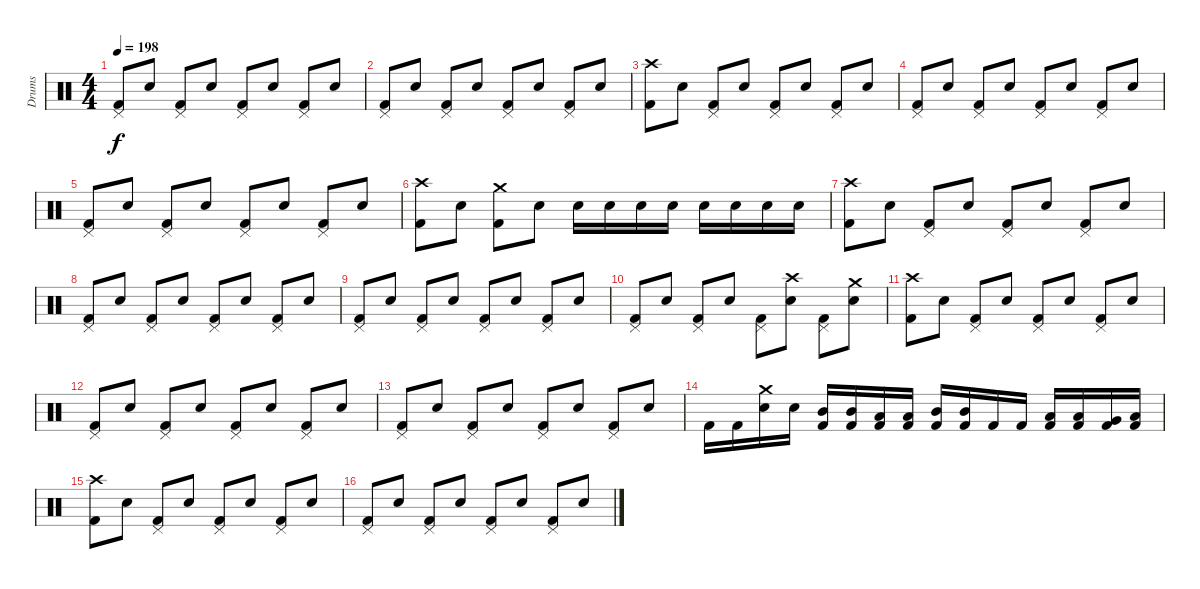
\track ("Drums" "Drums") {instrument percussion}
\staff {score}
\articulation defaults
\ts (4 4)
\tempo 198
\clef neutral
\ks c
("Pedal Hi-Hat (hit)" "Kick (hit) 2").8{dy f} "Electric Snare (hit)".8 ("Pedal Hi-Hat (hit)" "Kick (hit) 2").8 "Electric Snare (hit)".8 ("Pedal Hi-Hat (hit)" "Kick (hit) 2").8 "Electric Snare (hit)".8 ("Pedal Hi-Hat (hit)" "Kick (hit) 2").8 "Electric Snare (hit)".8 |
("Pedal Hi-Hat (hit)" "Kick (hit) 2").8 "Electric Snare (hit)".8 ("Pedal Hi-Hat (hit)" "Kick (hit) 2").8 "Electric Snare (hit)".8 ("Pedal Hi-Hat (hit)" "Kick (hit) 2").8 "Electric Snare (hit)".8 ("Pedal Hi-Hat (hit)" "Kick (hit) 2").8 "Electric Snare (hit)".8 |
("Crash high (hit)" "Kick (hit) 2").8 "Electric Snare (hit)".8 ("Pedal Hi-Hat (hit)" "Kick (hit) 2").8 "Electric Snare (hit)".8 ("Pedal Hi-Hat (hit)" "Kick (hit) 2").8 "Electric Snare (hit)".8 ("Pedal Hi-Hat (hit)" "Kick (hit) 2").8 "Electric Snare (hit)".8 |
("Pedal Hi-Hat (hit)" "Kick (hit) 2").8 "Electric Snare (hit)".8 ("Pedal Hi-Hat (hit)" "Kick (hit) 2").8 "Electric Snare (hit)".8 ("Pedal Hi-Hat (hit)" "Kick (hit) 2").8 "Electric Snare (hit)".8 ("Pedal Hi-Hat (hit)" "Kick (hit) 2").8 "Electric Snare (hit)".8 |
("Pedal Hi-Hat (hit)" "Kick (hit) 2").8 "Electric Snare (hit)".8 ("Pedal Hi-Hat (hit)" "Kick (hit) 2").8 "Electric Snare (hit)".8 ("Pedal Hi-Hat (hit)" "Kick (hit) 2").8 "Electric Snare (hit)".8 ("Pedal Hi-Hat (hit)" "Kick (hit) 2").8 "Electric Snare (hit)".8 |
("Crash high (hit)" "Kick (hit) 2").8 "Electric Snare (hit)".8 ("Crash medium (hit)" "Kick (hit) 2").8 "Electric Snare (hit)".8 "Electric Snare (hit)".16 "Electric Snare (hit)".16 "Electric Snare (hit)".16 "Electric Snare (hit)".16 "Electric Snare (hit)".16 "Electric Snare (hit)".16 "Electric Snare (hit)".16 "Electric Snare (hit)".16 |
("Crash high (hit)" "Kick (hit) 2").8 "Electric Snare (hit)".8 ("Pedal Hi-Hat (hit)" "Kick (hit) 2").8 "Electric Snare (hit)".8 ("Pedal Hi-Hat (hit)" "Kick (hit) 2").8 "Electric Snare (hit)".8 ("Pedal Hi-Hat (hit)" "Kick (hit) 2").8 "Electric Snare (hit)".8 |
("Pedal Hi-Hat (hit)" "Kick (hit) 2").8 "Electric Snare (hit)".8 ("Pedal Hi-Hat (hit)" "Kick (hit) 2").8 "Electric Snare (hit)".8 ("Pedal Hi-Hat (hit)" "Kick (hit) 2").8 "Electric Snare (hit)".8 ("Pedal Hi-Hat (hit)" "Kick (hit) 2").8 "Electric Snare (hit)".8 |
("Pedal Hi-Hat (hit)" "Kick (hit) 2").8 "Electric Snare (hit)".8 ("Pedal Hi-Hat (hit)" "Kick (hit) 2").8 "Electric Snare (hit)".8 ("Pedal Hi-Hat (hit)" "Kick (hit) 2").8 "Electric Snare (hit)".8 ("Pedal Hi-Hat (hit)" "Kick (hit) 2").8 "Electric Snare (hit)".8 |
("Pedal Hi-Hat (hit)" "Kick (hit) 2").8 "Electric Snare (hit)".8 ("Pedal Hi-Hat (hit)" "Kick (hit) 2").8 "Electric Snare (hit)".8 ("Pedal Hi-Hat (hit)" "Kick (hit) 2").8 ("Crash high (hit)" "Electric Snare (hit)").8 ("Pedal Hi-Hat (hit)" "Kick (hit) 2").8 ("Crash medium (hit)" "Electric Snare (hit)").8 |
("Crash high (hit)" "Kick (hit) 2").8 "Electric Snare (hit)".8 ("Pedal Hi-Hat (hit)" "Kick (hit) 2").8 "Electric Snare (hit)".8 ("Pedal Hi-Hat (hit)" "Kick (hit) 2").8 "Electric Snare (hit)".8 ("Pedal Hi-Hat (hit)" "Kick (hit) 2").8 "Electric Snare (hit)".8 |
("Pedal Hi-Hat (hit)" "Kick (hit) 2").8 "Electric Snare (hit)".8 ("Pedal Hi-Hat (hit)" "Kick (hit) 2").8 "Electric Snare (hit)".8 ("Pedal Hi-Hat (hit)" "Kick (hit) 2").8 "Electric Snare (hit)".8 ("Pedal Hi-Hat (hit)" "Kick (hit) 2").8 "Electric Snare (hit)".8 |
("Pedal Hi-Hat (hit)" "Kick (hit) 2").8 "Electric Snare (hit)".8 ("Pedal Hi-Hat (hit)" "Kick (hit) 2").8 "Electric Snare (hit)".8 ("Pedal Hi-Hat (hit)" "Kick (hit) 2").8 "Electric Snare (hit)".8 ("Pedal Hi-Hat (hit)" "Kick (hit) 2").8 "Electric Snare (hit)".8 |
"Kick (hit) 2".16 "Kick (hit) 2".16 ("Crash medium (hit)" "Electric Snare (hit)").16 "Electric Snare (hit)".16 ("Mid Tom (hit)" "Kick (hit) 2").16 ("Mid Tom (hit)" "Kick (hit) 2").16 ("Low Tom (hit)" "Kick (hit) 2").16 ("Low Tom (hit)" "Kick (hit) 2").16 ("Mid Tom (hit)" "Kick (hit) 2").16 ("Mid Tom (hit)" "Kick (hit) 2").16 "Kick (hit) 2".16 "Kick (hit) 2".16 ("Low Tom (hit)" "Kick (hit) 2").16 ("Low Tom (hit)" "Kick (hit) 2").16 ("Very Low Tom (hit)" "Kick (hit) 2").16 ("Low Floor Tom (hit)" "Kick (hit) 2").16 |
("Crash high (hit)" "Kick (hit) 2").8 "Electric Snare (hit)".8 ("Pedal Hi-Hat (hit)" "Kick (hit) 2").8 "Electric Snare (hit)".8 ("Pedal Hi-Hat (hit)" "Kick (hit) 2").8 "Electric Snare (hit)".8 ("Pedal Hi-Hat (hit)" "Kick (hit) 2").8 "Electric Snare (hit)".8 |
("Pedal Hi-Hat (hit)" "Kick (hit) 2").8 "Electric Snare (hit)".8 ("Pedal Hi-Hat (hit)" "Kick (hit) 2").8 "Electric Snare (hit)".8 ("Pedal Hi-Hat (hit)" "Kick (hit) 2").8 "Electric Snare (hit)".8 ("Pedal Hi-Hat (hit)" "Kick (hit) 2").8 "Electric Snare (hit)".8
